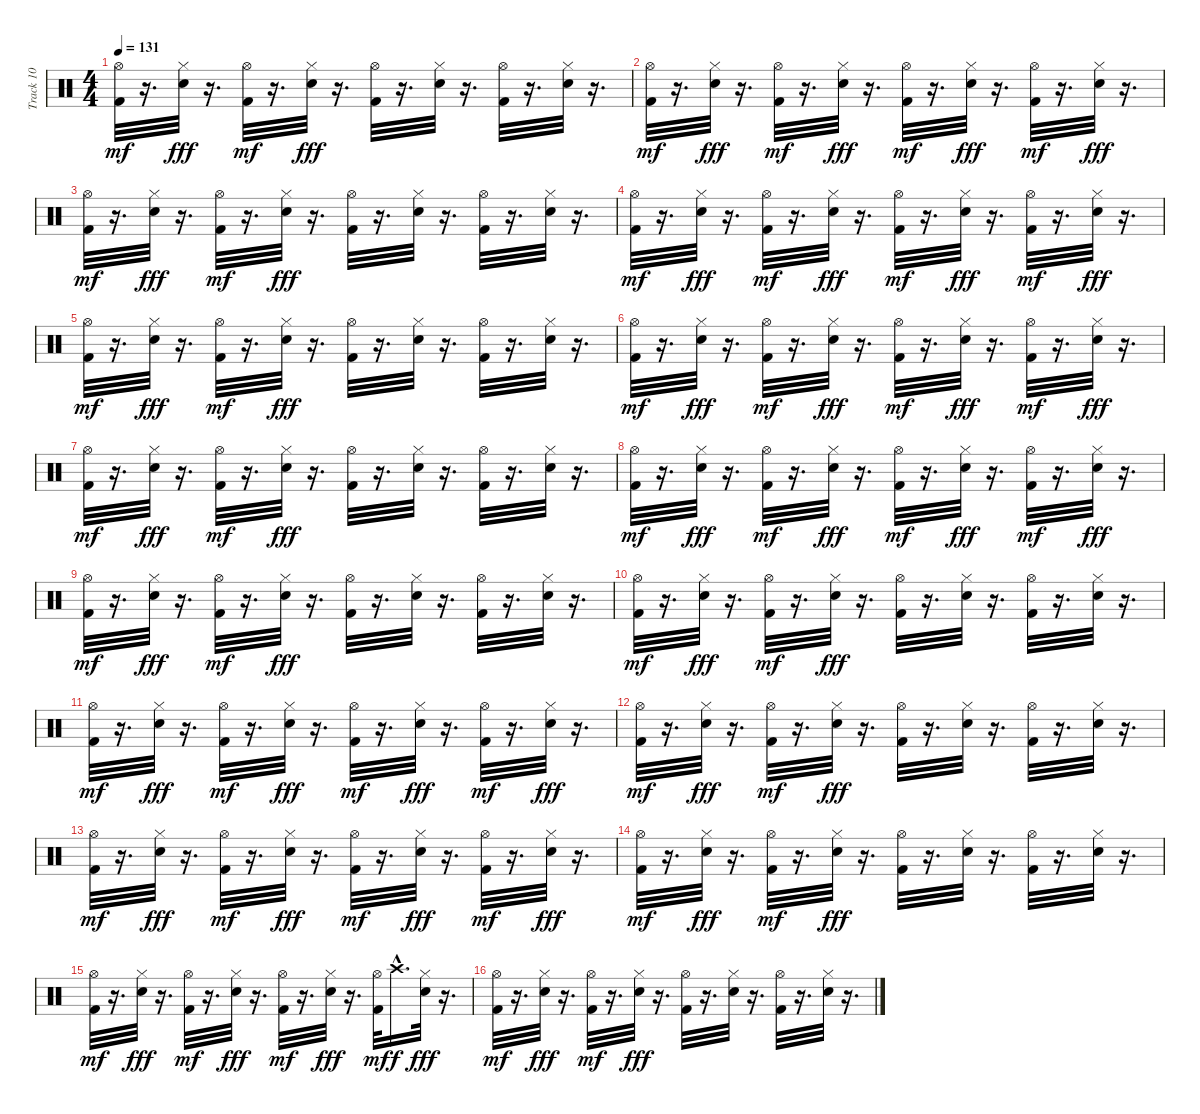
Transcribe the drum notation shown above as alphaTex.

\track ("Track 10" "Track 10") {instrument percussion}
\staff {score}
\articulation defaults
\ts (4 4)
\tempo 131
\clef neutral
\ks c
("Kick (hit) 2" "Hi-Hat (open)").32{dy mf} r.16{d} ("Snare (hit) 2" "Hi-Hat (closed)").32{dy fff} r.16{d} ("Kick (hit) 2" "Hi-Hat (open)").32{dy mf} r.16{d} ("Snare (hit) 2" "Hi-Hat (closed)").32{dy fff} r.16{d} ("Kick (hit) 2" "Hi-Hat (open)").32 r.16{d} ("Snare (hit) 2" "Hi-Hat (closed)").32 r.16{d} ("Kick (hit) 2" "Hi-Hat (open)").32 r.16{d} ("Snare (hit) 2" "Hi-Hat (closed)").32 r.16{d} |
("Kick (hit) 2" "Hi-Hat (open)").32{dy mf} r.16{d} ("Snare (hit) 2" "Hi-Hat (closed)").32{dy fff} r.16{d} ("Kick (hit) 2" "Hi-Hat (open)").32{dy mf} r.16{d} ("Snare (hit) 2" "Hi-Hat (closed)").32{dy fff} r.16{d} ("Kick (hit) 2" "Hi-Hat (open)").32{dy mf} r.16{d} ("Snare (hit) 2" "Hi-Hat (closed)").32{dy fff} r.16{d} ("Kick (hit) 2" "Hi-Hat (open)").32{dy mf} r.16{d} ("Snare (hit) 2" "Hi-Hat (closed)").32{dy fff} r.16{d} |
("Kick (hit) 2" "Hi-Hat (open)").32{dy mf} r.16{d} ("Snare (hit) 2" "Hi-Hat (closed)").32{dy fff} r.16{d} ("Kick (hit) 2" "Hi-Hat (open)").32{dy mf} r.16{d} ("Snare (hit) 2" "Hi-Hat (closed)").32{dy fff} r.16{d} ("Kick (hit) 2" "Hi-Hat (open)").32 r.16{d} ("Snare (hit) 2" "Hi-Hat (closed)").32 r.16{d} ("Kick (hit) 2" "Hi-Hat (open)").32 r.16{d} ("Snare (hit) 2" "Hi-Hat (closed)").32 r.16{d} |
("Kick (hit) 2" "Hi-Hat (open)").32{dy mf} r.16{d} ("Snare (hit) 2" "Hi-Hat (closed)").32{dy fff} r.16{d} ("Kick (hit) 2" "Hi-Hat (open)").32{dy mf} r.16{d} ("Snare (hit) 2" "Hi-Hat (closed)").32{dy fff} r.16{d} ("Kick (hit) 2" "Hi-Hat (open)").32{dy mf} r.16{d} ("Snare (hit) 2" "Hi-Hat (closed)").32{dy fff} r.16{d} ("Kick (hit) 2" "Hi-Hat (open)").32{dy mf} r.16{d} ("Snare (hit) 2" "Hi-Hat (closed)").32{dy fff} r.16{d} |
("Kick (hit) 2" "Hi-Hat (open)").32{dy mf} r.16{d} ("Snare (hit) 2" "Hi-Hat (closed)").32{dy fff} r.16{d} ("Kick (hit) 2" "Hi-Hat (open)").32{dy mf} r.16{d} ("Snare (hit) 2" "Hi-Hat (closed)").32{dy fff} r.16{d} ("Kick (hit) 2" "Hi-Hat (open)").32 r.16{d} ("Snare (hit) 2" "Hi-Hat (closed)").32 r.16{d} ("Kick (hit) 2" "Hi-Hat (open)").32 r.16{d} ("Snare (hit) 2" "Hi-Hat (closed)").32 r.16{d} |
("Kick (hit) 2" "Hi-Hat (open)").32{dy mf} r.16{d} ("Snare (hit) 2" "Hi-Hat (closed)").32{dy fff} r.16{d} ("Kick (hit) 2" "Hi-Hat (open)").32{dy mf} r.16{d} ("Snare (hit) 2" "Hi-Hat (closed)").32{dy fff} r.16{d} ("Kick (hit) 2" "Hi-Hat (open)").32{dy mf} r.16{d} ("Snare (hit) 2" "Hi-Hat (closed)").32{dy fff} r.16{d} ("Kick (hit) 2" "Hi-Hat (open)").32{dy mf} r.16{d} ("Snare (hit) 2" "Hi-Hat (closed)").32{dy fff} r.16{d} |
("Kick (hit) 2" "Hi-Hat (open)").32{dy mf} r.16{d} ("Snare (hit) 2" "Hi-Hat (closed)").32{dy fff} r.16{d} ("Kick (hit) 2" "Hi-Hat (open)").32{dy mf} r.16{d} ("Snare (hit) 2" "Hi-Hat (closed)").32{dy fff} r.16{d} ("Kick (hit) 2" "Hi-Hat (open)").32 r.16{d} ("Snare (hit) 2" "Hi-Hat (closed)").32 r.16{d} ("Kick (hit) 2" "Hi-Hat (open)").32 r.16{d} ("Snare (hit) 2" "Hi-Hat (closed)").32 r.16{d} |
("Kick (hit) 2" "Hi-Hat (open)").32{dy mf} r.16{d} ("Snare (hit) 2" "Hi-Hat (closed)").32{dy fff} r.16{d} ("Kick (hit) 2" "Hi-Hat (open)").32{dy mf} r.16{d} ("Snare (hit) 2" "Hi-Hat (closed)").32{dy fff} r.16{d} ("Kick (hit) 2" "Hi-Hat (open)").32{dy mf} r.16{d} ("Snare (hit) 2" "Hi-Hat (closed)").32{dy fff} r.16{d} ("Kick (hit) 2" "Hi-Hat (open)").32{dy mf} r.16{d} ("Snare (hit) 2" "Hi-Hat (closed)").32{dy fff} r.16{d} |
("Kick (hit) 2" "Hi-Hat (open)").32{dy mf} r.16{d} ("Snare (hit) 2" "Hi-Hat (closed)").32{dy fff} r.16{d} ("Kick (hit) 2" "Hi-Hat (open)").32{dy mf} r.16{d} ("Snare (hit) 2" "Hi-Hat (closed)").32{dy fff} r.16{d} ("Kick (hit) 2" "Hi-Hat (open)").32 r.16{d} ("Snare (hit) 2" "Hi-Hat (closed)").32 r.16{d} ("Kick (hit) 2" "Hi-Hat (open)").32 r.16{d} ("Snare (hit) 2" "Hi-Hat (closed)").32 r.16{d} |
("Kick (hit) 2" "Hi-Hat (open)").32{dy mf} r.16{d} ("Snare (hit) 2" "Hi-Hat (closed)").32{dy fff} r.16{d} ("Kick (hit) 2" "Hi-Hat (open)").32{dy mf} r.16{d} ("Snare (hit) 2" "Hi-Hat (closed)").32{dy fff} r.16{d} ("Kick (hit) 2" "Hi-Hat (open)").32 r.16{d} ("Snare (hit) 2" "Hi-Hat (closed)").32 r.16{d} ("Kick (hit) 2" "Hi-Hat (open)").32 r.16{d} ("Snare (hit) 2" "Hi-Hat (closed)").32 r.16{d} |
("Kick (hit) 2" "Hi-Hat (open)").32{dy mf} r.16{d} ("Snare (hit) 2" "Hi-Hat (closed)").32{dy fff} r.16{d} ("Kick (hit) 2" "Hi-Hat (open)").32{dy mf} r.16{d} ("Snare (hit) 2" "Hi-Hat (closed)").32{dy fff} r.16{d} ("Kick (hit) 2" "Hi-Hat (open)").32{dy mf} r.16{d} ("Snare (hit) 2" "Hi-Hat (closed)").32{dy fff} r.16{d} ("Kick (hit) 2" "Hi-Hat (open)").32{dy mf} r.16{d} ("Snare (hit) 2" "Hi-Hat (closed)").32{dy fff} r.16{d} |
("Kick (hit) 2" "Hi-Hat (open)").32{dy mf} r.16{d} ("Snare (hit) 2" "Hi-Hat (closed)").32{dy fff} r.16{d} ("Kick (hit) 2" "Hi-Hat (open)").32{dy mf} r.16{d} ("Snare (hit) 2" "Hi-Hat (closed)").32{dy fff} r.16{d} ("Kick (hit) 2" "Hi-Hat (open)").32 r.16{d} ("Snare (hit) 2" "Hi-Hat (closed)").32 r.16{d} ("Kick (hit) 2" "Hi-Hat (open)").32 r.16{d} ("Snare (hit) 2" "Hi-Hat (closed)").32 r.16{d} |
("Kick (hit) 2" "Hi-Hat (open)").32{dy mf} r.16{d} ("Snare (hit) 2" "Hi-Hat (closed)").32{dy fff} r.16{d} ("Kick (hit) 2" "Hi-Hat (open)").32{dy mf} r.16{d} ("Snare (hit) 2" "Hi-Hat (closed)").32{dy fff} r.16{d} ("Kick (hit) 2" "Hi-Hat (open)").32{dy mf} r.16{d} ("Snare (hit) 2" "Hi-Hat (closed)").32{dy fff} r.16{d} ("Kick (hit) 2" "Hi-Hat (open)").32{dy mf} r.16{d} ("Snare (hit) 2" "Hi-Hat (closed)").32{dy fff} r.16{d} |
("Kick (hit) 2" "Hi-Hat (open)").32{dy mf} r.16{d} ("Snare (hit) 2" "Hi-Hat (closed)").32{dy fff} r.16{d} ("Kick (hit) 2" "Hi-Hat (open)").32{dy mf} r.16{d} ("Snare (hit) 2" "Hi-Hat (closed)").32{dy fff} r.16{d} ("Kick (hit) 2" "Hi-Hat (open)").32 r.16{d} ("Snare (hit) 2" "Hi-Hat (closed)").32 r.16{d} ("Kick (hit) 2" "Hi-Hat (open)").32 r.16{d} ("Snare (hit) 2" "Hi-Hat (closed)").32 r.16{d} |
("Kick (hit) 2" "Hi-Hat (open)").32{dy mf} r.16{d} ("Snare (hit) 2" "Hi-Hat (closed)").32{dy fff} r.16{d} ("Kick (hit) 2" "Hi-Hat (open)").32{dy mf} r.16{d} ("Snare (hit) 2" "Hi-Hat (closed)").32{dy fff} r.16{d} ("Kick (hit) 2" "Hi-Hat (open)").32{dy mf} r.16{d} ("Snare (hit) 2" "Hi-Hat (closed)").32{dy fff} r.16{d} ("Kick (hit) 2" "Hi-Hat (open)").32{dy mf} "Crash high (hit)"{hac}.16{d dy f} ("Snare (hit) 2" "Hi-Hat (closed)").32{dy fff} r.16{d} |
("Kick (hit) 2" "Hi-Hat (open)").32{dy mf} r.16{d} ("Snare (hit) 2" "Hi-Hat (closed)").32{dy fff} r.16{d} ("Kick (hit) 2" "Hi-Hat (open)").32{dy mf} r.16{d} ("Snare (hit) 2" "Hi-Hat (closed)").32{dy fff} r.16{d} ("Kick (hit) 2" "Hi-Hat (open)").32 r.16{d} ("Snare (hit) 2" "Hi-Hat (closed)").32 r.16{d} ("Kick (hit) 2" "Hi-Hat (open)").32 r.16{d} ("Snare (hit) 2" "Hi-Hat (closed)").32 r.16{d}
